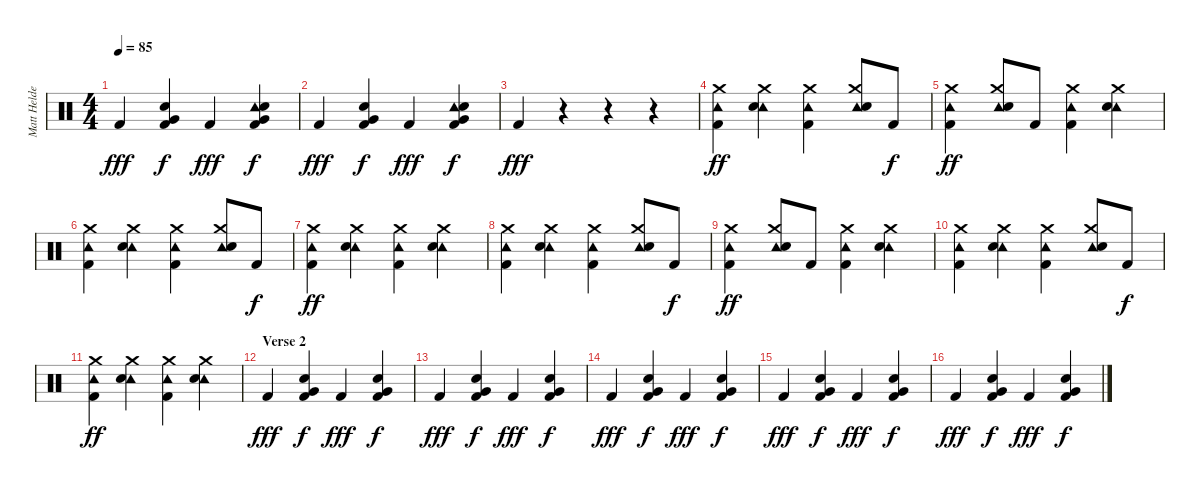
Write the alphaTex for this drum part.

\track ("Matt Helders - Drums" "Matt Helde") {instrument percussion}
\staff {score}
\articulation defaults
\ts (4 4)
\tempo 85
\clef neutral
\ks c "Kick (hit) 2".4{dy fff}
("Kick (hit) 2" "Very Low Tom (hit)" "Hand Clap (hit)").4{dy f} "Kick (hit) 2".4{dy fff} ("Kick (hit) 2" "Very Low Tom (hit)" "Tambourine (hit)" "Hand Clap (hit)").4{dy f} |
"Kick (hit) 2".4{dy fff} ("Kick (hit) 2" "Very Low Tom (hit)" "Hand Clap (hit)").4{dy f} "Kick (hit) 2".4{dy fff} ("Kick (hit) 2" "Very Low Tom (hit)" "Tambourine (hit)" "Hand Clap (hit)").4{dy f} |
"Kick (hit) 2".4{dy fff} r.4 r.4 r.4 |
("Crash medium (hit)" "Tambourine (hit)" "Kick (hit) 2").4{dy ff} ("Crash medium (hit)" "Tambourine (hit)" "Electric Snare (hit)").4 ("Crash medium (hit)" "Tambourine (hit)" "Kick (hit) 2").4 ("Crash medium (hit)" "Tambourine (hit)" "Electric Snare (hit)").8 "Kick (hit) 2".8{dy f} |
("Crash medium (hit)" "Tambourine (hit)" "Kick (hit) 2").4{dy ff} ("Crash medium (hit)" "Tambourine (hit)" "Electric Snare (hit)").8 "Kick (hit) 2".8 ("Crash medium (hit)" "Tambourine (hit)" "Kick (hit) 2").4 ("Crash medium (hit)" "Tambourine (hit)" "Electric Snare (hit)").4 |
("Crash medium (hit)" "Tambourine (hit)" "Kick (hit) 2").4 ("Crash medium (hit)" "Tambourine (hit)" "Electric Snare (hit)").4 ("Crash medium (hit)" "Tambourine (hit)" "Kick (hit) 2").4 ("Crash medium (hit)" "Tambourine (hit)" "Electric Snare (hit)").8 "Kick (hit) 2".8{dy f} |
("Crash medium (hit)" "Tambourine (hit)" "Kick (hit) 2").4{dy ff} ("Crash medium (hit)" "Tambourine (hit)" "Electric Snare (hit)").4 ("Crash medium (hit)" "Tambourine (hit)" "Kick (hit) 2").4 ("Crash medium (hit)" "Tambourine (hit)" "Electric Snare (hit)").4 |
("Crash medium (hit)" "Tambourine (hit)" "Kick (hit) 2").4 ("Crash medium (hit)" "Tambourine (hit)" "Electric Snare (hit)").4 ("Crash medium (hit)" "Tambourine (hit)" "Kick (hit) 2").4 ("Crash medium (hit)" "Tambourine (hit)" "Electric Snare (hit)").8 "Kick (hit) 2".8{dy f} |
("Crash medium (hit)" "Tambourine (hit)" "Kick (hit) 2").4{dy ff} ("Crash medium (hit)" "Tambourine (hit)" "Electric Snare (hit)").8 "Kick (hit) 2".8 ("Crash medium (hit)" "Tambourine (hit)" "Kick (hit) 2").4 ("Crash medium (hit)" "Tambourine (hit)" "Electric Snare (hit)").4 |
("Crash medium (hit)" "Tambourine (hit)" "Kick (hit) 2").4 ("Crash medium (hit)" "Tambourine (hit)" "Electric Snare (hit)").4 ("Crash medium (hit)" "Tambourine (hit)" "Kick (hit) 2").4 ("Crash medium (hit)" "Tambourine (hit)" "Electric Snare (hit)").8 "Kick (hit) 2".8{dy f} |
("Crash medium (hit)" "Tambourine (hit)" "Kick (hit) 2").4{dy ff} ("Crash medium (hit)" "Tambourine (hit)" "Electric Snare (hit)").4 ("Crash medium (hit)" "Tambourine (hit)" "Kick (hit) 2").4 ("Crash medium (hit)" "Tambourine (hit)" "Electric Snare (hit)").4 |
\section ("" "Verse 2")
"Kick (hit) 2".4{dy fff} ("Kick (hit) 2" "Very Low Tom (hit)" "Hand Clap (hit)").4{dy f} "Kick (hit) 2".4{dy fff} ("Kick (hit) 2" "Very Low Tom (hit)" "Hand Clap (hit)").4{dy f} |
"Kick (hit) 2".4{dy fff} ("Kick (hit) 2" "Very Low Tom (hit)" "Hand Clap (hit)").4{dy f} "Kick (hit) 2".4{dy fff} ("Kick (hit) 2" "Very Low Tom (hit)" "Hand Clap (hit)").4{dy f} |
"Kick (hit) 2".4{dy fff} ("Kick (hit) 2" "Very Low Tom (hit)" "Hand Clap (hit)").4{dy f} "Kick (hit) 2".4{dy fff} ("Kick (hit) 2" "Very Low Tom (hit)" "Hand Clap (hit)").4{dy f} |
"Kick (hit) 2".4{dy fff} ("Kick (hit) 2" "Very Low Tom (hit)" "Hand Clap (hit)").4{dy f} "Kick (hit) 2".4{dy fff} ("Kick (hit) 2" "Very Low Tom (hit)" "Hand Clap (hit)").4{dy f} |
"Kick (hit) 2".4{dy fff} ("Kick (hit) 2" "Very Low Tom (hit)" "Hand Clap (hit)").4{dy f} "Kick (hit) 2".4{dy fff} ("Kick (hit) 2" "Very Low Tom (hit)" "Hand Clap (hit)").4{dy f}
